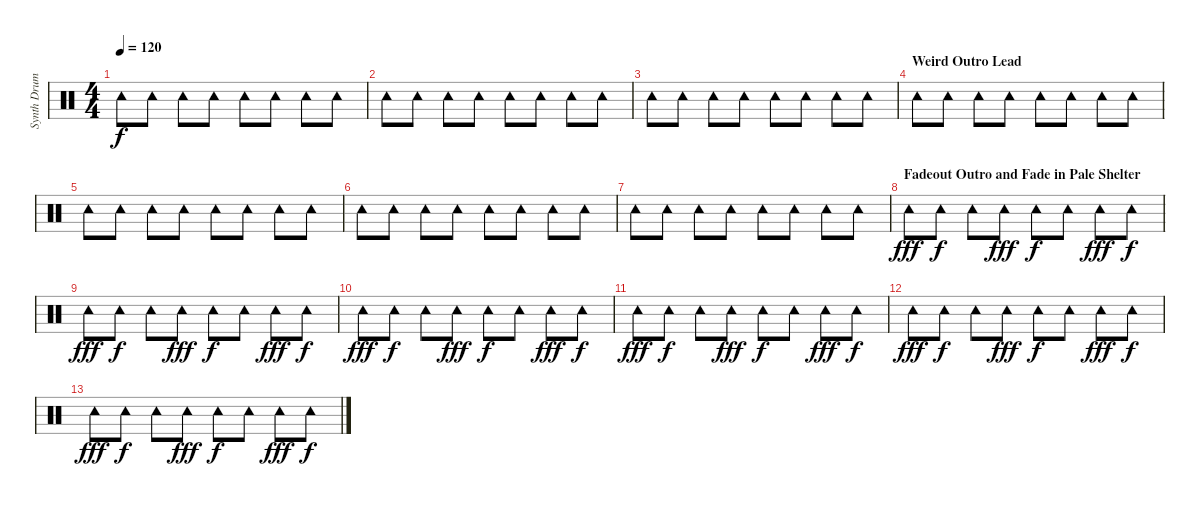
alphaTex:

\track ("Synth Drums hihat etc..." "Synth Drum") {instrument percussion}
\staff {score}
\articulation defaults
\ts (4 4)
\tempo 120
\clef neutral
\ks c "Tambourine (hit)".8{dy f} "Tambourine (hit)".8 "Tambourine (hit)".8 "Tambourine (hit)".8 "Tambourine (hit)".8 "Tambourine (hit)".8 "Tambourine (hit)".8 "Tambourine (hit)".8
|
"Tambourine (hit)".8 "Tambourine (hit)".8 "Tambourine (hit)".8 "Tambourine (hit)".8 "Tambourine (hit)".8 "Tambourine (hit)".8 "Tambourine (hit)".8 "Tambourine (hit)".8 |
"Tambourine (hit)".8 "Tambourine (hit)".8 "Tambourine (hit)".8 "Tambourine (hit)".8 "Tambourine (hit)".8 "Tambourine (hit)".8 "Tambourine (hit)".8 "Tambourine (hit)".8 |
\section ("" "Weird Outro Lead")
"Tambourine (hit)".8 "Tambourine (hit)".8 "Tambourine (hit)".8 "Tambourine (hit)".8 "Tambourine (hit)".8 "Tambourine (hit)".8 "Tambourine (hit)".8 "Tambourine (hit)".8 |
"Tambourine (hit)".8 "Tambourine (hit)".8 "Tambourine (hit)".8 "Tambourine (hit)".8 "Tambourine (hit)".8 "Tambourine (hit)".8 "Tambourine (hit)".8 "Tambourine (hit)".8 |
"Tambourine (hit)".8 "Tambourine (hit)".8 "Tambourine (hit)".8 "Tambourine (hit)".8 "Tambourine (hit)".8 "Tambourine (hit)".8 "Tambourine (hit)".8 "Tambourine (hit)".8 |
"Tambourine (hit)".8 "Tambourine (hit)".8 "Tambourine (hit)".8 "Tambourine (hit)".8 "Tambourine (hit)".8 "Tambourine (hit)".8 "Tambourine (hit)".8 "Tambourine (hit)".8 |
\section ("" "Fadeout Outro and Fade in Pale Shelter")
"Tambourine (hit)".8{dy fff} "Tambourine (hit)".8{dy f} "Tambourine (hit)".8 "Tambourine (hit)".8{dy fff} "Tambourine (hit)".8{dy f} "Tambourine (hit)".8 "Tambourine (hit)".8{dy fff} "Tambourine (hit)".8{dy f} |
"Tambourine (hit)".8{dy fff volume 0} "Tambourine (hit)".8{dy f} "Tambourine (hit)".8 "Tambourine (hit)".8{dy fff} "Tambourine (hit)".8{dy f} "Tambourine (hit)".8 "Tambourine (hit)".8{dy fff} "Tambourine (hit)".8{dy f} |
"Tambourine (hit)".8{dy fff} "Tambourine (hit)".8{dy f} "Tambourine (hit)".8 "Tambourine (hit)".8{dy fff} "Tambourine (hit)".8{dy f} "Tambourine (hit)".8 "Tambourine (hit)".8{dy fff} "Tambourine (hit)".8{dy f} |
"Tambourine (hit)".8{dy fff} "Tambourine (hit)".8{dy f} "Tambourine (hit)".8 "Tambourine (hit)".8{dy fff} "Tambourine (hit)".8{dy f} "Tambourine (hit)".8 "Tambourine (hit)".8{dy fff} "Tambourine (hit)".8{dy f} |
"Tambourine (hit)".8{dy fff} "Tambourine (hit)".8{dy f} "Tambourine (hit)".8 "Tambourine (hit)".8{dy fff} "Tambourine (hit)".8{dy f} "Tambourine (hit)".8 "Tambourine (hit)".8{dy fff} "Tambourine (hit)".8{dy f} |
"Tambourine (hit)".8{dy fff} "Tambourine (hit)".8{dy f} "Tambourine (hit)".8 "Tambourine (hit)".8{dy fff} "Tambourine (hit)".8{dy f} "Tambourine (hit)".8 "Tambourine (hit)".8{dy fff} "Tambourine (hit)".8{dy f}
